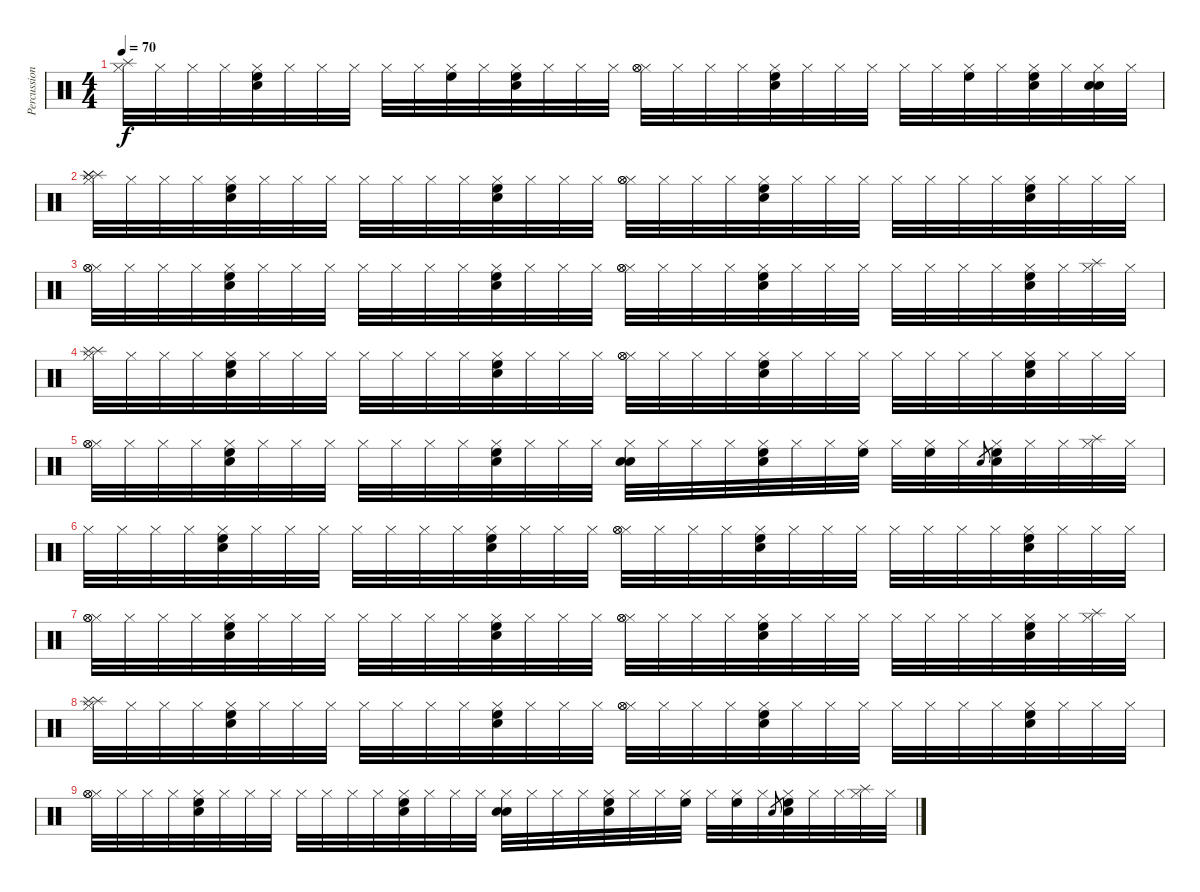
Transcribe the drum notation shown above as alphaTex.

\track ("Percussions" "Percussion") {instrument percussion}
\staff {score}
\articulation defaults
\ts (4 4)
\tempo 70
\clef neutral
\ks c
("Hi-Hat (closed)" "Splash (hit)").32{dy f} "Hi-Hat (closed)".32 "Hi-Hat (closed)".32 "Hi-Hat (closed)".32 ("Hi-Hat (closed)" "Snare (hit) 2" "High Floor Tom (hit)").32 "Hi-Hat (closed)".32 "Hi-Hat (closed)".32 "Hi-Hat (closed)".32 "Hi-Hat (closed)".32 "Hi-Hat (closed)".32 ("Hi-Hat (closed)" "High Floor Tom (hit)").32 "Hi-Hat (closed)".32 ("Hi-Hat (closed)" "Snare (hit) 2" "High Floor Tom (hit)").32 "Hi-Hat (closed)".32 "Hi-Hat (closed)".32 "Hi-Hat (closed)".32 ("Hi-Hat (closed)" "Hi-Hat (open)" "Hi-Hat (open)").32 "Hi-Hat (closed)".32 "Hi-Hat (closed)".32 "Hi-Hat (closed)".32 ("Hi-Hat (closed)" "Snare (hit) 2" "High Floor Tom (hit)").32 "Hi-Hat (closed)".32 "Hi-Hat (closed)".32 "Hi-Hat (closed)".32 "Hi-Hat (closed)".32 "Hi-Hat (closed)".32 ("Hi-Hat (closed)" "High Floor Tom (hit)").32 "Hi-Hat (closed)".32 ("Hi-Hat (closed)" "Snare (hit) 2" "High Floor Tom (hit)").32 "Hi-Hat (closed)".32 ("Hi-Hat (closed)" "Snare (hit) 2" "Snare (hit) 2").32 "Hi-Hat (closed)".32 |
("Hi-Hat (closed)" "Splash (hit)" "Splash (hit)" "Splash (hit)").32 "Hi-Hat (closed)".32 "Hi-Hat (closed)".32 "Hi-Hat (closed)".32 ("Hi-Hat (closed)" "Snare (hit) 2" "High Floor Tom (hit)").32 "Hi-Hat (closed)".32 "Hi-Hat (closed)".32 "Hi-Hat (closed)".32 "Hi-Hat (closed)".32 "Hi-Hat (closed)".32 "Hi-Hat (closed)".32 "Hi-Hat (closed)".32 ("Hi-Hat (closed)" "Snare (hit) 2" "High Floor Tom (hit)").32 "Hi-Hat (closed)".32 "Hi-Hat (closed)".32 "Hi-Hat (closed)".32 ("Hi-Hat (closed)" "Hi-Hat (open)" "Hi-Hat (open)").32 "Hi-Hat (closed)".32 "Hi-Hat (closed)".32 "Hi-Hat (closed)".32 ("Hi-Hat (closed)" "Snare (hit) 2" "High Floor Tom (hit)").32 "Hi-Hat (closed)".32 "Hi-Hat (closed)".32 "Hi-Hat (closed)".32 "Hi-Hat (closed)".32 "Hi-Hat (closed)".32 "Hi-Hat (closed)".32 "Hi-Hat (closed)".32 ("Hi-Hat (closed)" "Snare (hit) 2" "High Floor Tom (hit)").32 "Hi-Hat (closed)".32 "Hi-Hat (closed)".32 "Hi-Hat (closed)".32 |
("Hi-Hat (closed)" "Hi-Hat (open)" "Hi-Hat (open)").32 "Hi-Hat (closed)".32 "Hi-Hat (closed)".32 "Hi-Hat (closed)".32 ("Hi-Hat (closed)" "Snare (hit) 2" "High Floor Tom (hit)").32 "Hi-Hat (closed)".32 "Hi-Hat (closed)".32 "Hi-Hat (closed)".32 "Hi-Hat (closed)".32 "Hi-Hat (closed)".32 "Hi-Hat (closed)".32 "Hi-Hat (closed)".32 ("Hi-Hat (closed)" "Snare (hit) 2" "High Floor Tom (hit)").32 "Hi-Hat (closed)".32 "Hi-Hat (closed)".32 "Hi-Hat (closed)".32 ("Hi-Hat (closed)" "Hi-Hat (open)" "Hi-Hat (open)").32 "Hi-Hat (closed)".32 "Hi-Hat (closed)".32 "Hi-Hat (closed)".32 ("Hi-Hat (closed)" "Snare (hit) 2" "High Floor Tom (hit)").32 "Hi-Hat (closed)".32 "Hi-Hat (closed)".32 "Hi-Hat (closed)".32 "Hi-Hat (closed)".32 "Hi-Hat (closed)".32 "Hi-Hat (closed)".32 "Hi-Hat (closed)".32 ("Hi-Hat (closed)" "Snare (hit) 2" "High Floor Tom (hit)").32 "Hi-Hat (closed)".32 ("Hi-Hat (closed)" "Splash (hit)").32 "Hi-Hat (closed)".32 |
("Hi-Hat (closed)" "Splash (hit)" "Splash (hit)").32{volume 8} "Hi-Hat (closed)".32 "Hi-Hat (closed)".32 "Hi-Hat (closed)".32 ("Hi-Hat (closed)" "Snare (hit) 2" "High Floor Tom (hit)").32 "Hi-Hat (closed)".32 "Hi-Hat (closed)".32 "Hi-Hat (closed)".32 "Hi-Hat (closed)".32 "Hi-Hat (closed)".32 "Hi-Hat (closed)".32 "Hi-Hat (closed)".32 ("Hi-Hat (closed)" "Snare (hit) 2" "High Floor Tom (hit)").32 "Hi-Hat (closed)".32 "Hi-Hat (closed)".32 "Hi-Hat (closed)".32 ("Hi-Hat (closed)" "Hi-Hat (open)" "Hi-Hat (open)").32 "Hi-Hat (closed)".32 "Hi-Hat (closed)".32 "Hi-Hat (closed)".32 ("Hi-Hat (closed)" "Snare (hit) 2" "High Floor Tom (hit)").32 "Hi-Hat (closed)".32 "Hi-Hat (closed)".32 "Hi-Hat (closed)".32 "Hi-Hat (closed)".32 "Hi-Hat (closed)".32 "Hi-Hat (closed)".32 "Hi-Hat (closed)".32 ("Hi-Hat (closed)" "Snare (hit) 2" "High Floor Tom (hit)").32 "Hi-Hat (closed)".32 "Hi-Hat (closed)".32 "Hi-Hat (closed)".32 |
("Hi-Hat (closed)" "Hi-Hat (open)" "Hi-Hat (open)").32{volume 6} "Hi-Hat (closed)".32 "Hi-Hat (closed)".32 "Hi-Hat (closed)".32 ("Hi-Hat (closed)" "Snare (hit) 2" "High Floor Tom (hit)").32 "Hi-Hat (closed)".32 "Hi-Hat (closed)".32 "Hi-Hat (closed)".32 "Hi-Hat (closed)".32 "Hi-Hat (closed)".32 "Hi-Hat (closed)".32 "Hi-Hat (closed)".32 ("Hi-Hat (closed)" "Snare (hit) 2" "High Floor Tom (hit)").32 "Hi-Hat (closed)".32 "Hi-Hat (closed)".32 "Hi-Hat (closed)".32 ("Hi-Hat (closed)" "Snare (hit) 2" "Snare (hit) 2").32 "Hi-Hat (closed)".32 "Hi-Hat (closed)".32 "Hi-Hat (closed)".32 ("Hi-Hat (closed)" "Snare (hit) 2" "High Floor Tom (hit)").32 "Hi-Hat (closed)".32 "Hi-Hat (closed)".32 ("Hi-Hat (closed)" "High Floor Tom (hit)").32 "Hi-Hat (closed)".32 ("Hi-Hat (closed)" "High Floor Tom (hit)").32 "Hi-Hat (closed)".32 "Snare (hit) 2".8{gr} ("Hi-Hat (closed)" "Snare (hit) 2" "High Floor Tom (hit)").32 "Hi-Hat (closed)".32 "Hi-Hat (closed)".32 ("Hi-Hat (closed)" "Splash (hit)").32 "Hi-Hat (closed)".32 |
"Hi-Hat (closed)".32{volume 4} "Hi-Hat (closed)".32 "Hi-Hat (closed)".32 "Hi-Hat (closed)".32 ("Hi-Hat (closed)" "Snare (hit) 2" "High Floor Tom (hit)").32 "Hi-Hat (closed)".32 "Hi-Hat (closed)".32 "Hi-Hat (closed)".32 "Hi-Hat (closed)".32 "Hi-Hat (closed)".32 "Hi-Hat (closed)".32 "Hi-Hat (closed)".32 ("Hi-Hat (closed)" "Snare (hit) 2" "High Floor Tom (hit)").32 "Hi-Hat (closed)".32 "Hi-Hat (closed)".32 "Hi-Hat (closed)".32 ("Hi-Hat (closed)" "Hi-Hat (open)" "Hi-Hat (open)").32 "Hi-Hat (closed)".32 "Hi-Hat (closed)".32 "Hi-Hat (closed)".32 ("Hi-Hat (closed)" "Snare (hit) 2" "High Floor Tom (hit)").32 "Hi-Hat (closed)".32 "Hi-Hat (closed)".32 "Hi-Hat (closed)".32 "Hi-Hat (closed)".32 "Hi-Hat (closed)".32 "Hi-Hat (closed)".32 "Hi-Hat (closed)".32 ("Hi-Hat (closed)" "Snare (hit) 2" "High Floor Tom (hit)").32 "Hi-Hat (closed)".32 "Hi-Hat (closed)".32 "Hi-Hat (closed)".32 |
("Hi-Hat (closed)" "Hi-Hat (open)" "Hi-Hat (open)").32{volume 2} "Hi-Hat (closed)".32 "Hi-Hat (closed)".32 "Hi-Hat (closed)".32 ("Hi-Hat (closed)" "Snare (hit) 2" "High Floor Tom (hit)").32 "Hi-Hat (closed)".32 "Hi-Hat (closed)".32 "Hi-Hat (closed)".32 "Hi-Hat (closed)".32 "Hi-Hat (closed)".32 "Hi-Hat (closed)".32 "Hi-Hat (closed)".32 ("Hi-Hat (closed)" "Snare (hit) 2" "High Floor Tom (hit)").32 "Hi-Hat (closed)".32 "Hi-Hat (closed)".32 "Hi-Hat (closed)".32 ("Hi-Hat (closed)" "Hi-Hat (open)" "Hi-Hat (open)").32 "Hi-Hat (closed)".32 "Hi-Hat (closed)".32 "Hi-Hat (closed)".32 ("Hi-Hat (closed)" "Snare (hit) 2" "High Floor Tom (hit)").32 "Hi-Hat (closed)".32 "Hi-Hat (closed)".32 "Hi-Hat (closed)".32 "Hi-Hat (closed)".32 "Hi-Hat (closed)".32 "Hi-Hat (closed)".32 "Hi-Hat (closed)".32 ("Hi-Hat (closed)" "Snare (hit) 2" "High Floor Tom (hit)").32 "Hi-Hat (closed)".32 ("Hi-Hat (closed)" "Splash (hit)").32 "Hi-Hat (closed)".32 |
("Hi-Hat (closed)" "Splash (hit)" "Splash (hit)").32{volume 0} "Hi-Hat (closed)".32 "Hi-Hat (closed)".32 "Hi-Hat (closed)".32 ("Hi-Hat (closed)" "Snare (hit) 2" "High Floor Tom (hit)").32 "Hi-Hat (closed)".32 "Hi-Hat (closed)".32 "Hi-Hat (closed)".32 "Hi-Hat (closed)".32 "Hi-Hat (closed)".32 "Hi-Hat (closed)".32 "Hi-Hat (closed)".32 ("Hi-Hat (closed)" "Snare (hit) 2" "High Floor Tom (hit)").32 "Hi-Hat (closed)".32 "Hi-Hat (closed)".32 "Hi-Hat (closed)".32 ("Hi-Hat (closed)" "Hi-Hat (open)" "Hi-Hat (open)").32 "Hi-Hat (closed)".32 "Hi-Hat (closed)".32 "Hi-Hat (closed)".32 ("Hi-Hat (closed)" "Snare (hit) 2" "High Floor Tom (hit)").32 "Hi-Hat (closed)".32 "Hi-Hat (closed)".32 "Hi-Hat (closed)".32 "Hi-Hat (closed)".32 "Hi-Hat (closed)".32 "Hi-Hat (closed)".32 "Hi-Hat (closed)".32 ("Hi-Hat (closed)" "Snare (hit) 2" "High Floor Tom (hit)").32 "Hi-Hat (closed)".32 "Hi-Hat (closed)".32 "Hi-Hat (closed)".32 |
("Hi-Hat (closed)" "Hi-Hat (open)" "Hi-Hat (open)").32 "Hi-Hat (closed)".32 "Hi-Hat (closed)".32 "Hi-Hat (closed)".32 ("Hi-Hat (closed)" "Snare (hit) 2" "High Floor Tom (hit)").32 "Hi-Hat (closed)".32 "Hi-Hat (closed)".32 "Hi-Hat (closed)".32 "Hi-Hat (closed)".32 "Hi-Hat (closed)".32 "Hi-Hat (closed)".32 "Hi-Hat (closed)".32 ("Hi-Hat (closed)" "Snare (hit) 2" "High Floor Tom (hit)").32 "Hi-Hat (closed)".32 "Hi-Hat (closed)".32 "Hi-Hat (closed)".32 ("Hi-Hat (closed)" "Snare (hit) 2" "Snare (hit) 2").32 "Hi-Hat (closed)".32 "Hi-Hat (closed)".32 "Hi-Hat (closed)".32 ("Hi-Hat (closed)" "Snare (hit) 2" "High Floor Tom (hit)").32 "Hi-Hat (closed)".32 "Hi-Hat (closed)".32 ("Hi-Hat (closed)" "High Floor Tom (hit)").32 "Hi-Hat (closed)".32 ("Hi-Hat (closed)" "High Floor Tom (hit)").32 "Hi-Hat (closed)".32 "Snare (hit) 2".8{gr} ("Hi-Hat (closed)" "Snare (hit) 2" "High Floor Tom (hit)").32 "Hi-Hat (closed)".32 "Hi-Hat (closed)".32 ("Hi-Hat (closed)" "Splash (hit)").32 "Hi-Hat (closed)".32
